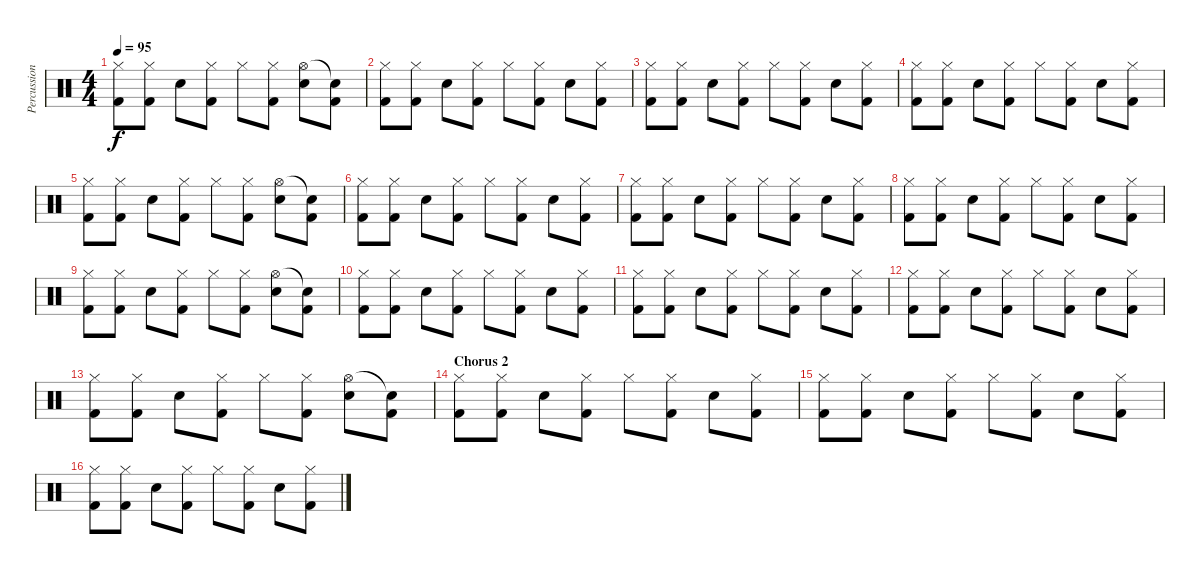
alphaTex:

\track ("Percussion" "Percussion") {instrument percussion}
\staff {score}
\articulation defaults
\ts (4 4)
\tempo 95
\clef neutral
\ks c
("Hi-Hat (closed)" "Kick (hit) 2").8{dy f} ("Hi-Hat (closed)" "Kick (hit) 2").8 "Snare (hit) 2".8 ("Hi-Hat (closed)" "Kick (hit) 2").8 "Hi-Hat (closed)".8 ("Hi-Hat (closed)" "Kick (hit) 2").8 ("Hi-Hat (open)" "Snare (hit) 2").8 ("Snare (hit)"{t} "Kick (hit) 2").8 |
("Hi-Hat (closed)" "Kick (hit) 2").8 ("Hi-Hat (closed)" "Kick (hit) 2").8 "Snare (hit) 2".8 ("Hi-Hat (closed)" "Kick (hit) 2").8 "Hi-Hat (closed)".8 ("Hi-Hat (closed)" "Kick (hit) 2").8 "Snare (hit) 2".8 ("Hi-Hat (closed)" "Kick (hit) 2").8 |
("Hi-Hat (closed)" "Kick (hit) 2").8 ("Hi-Hat (closed)" "Kick (hit) 2").8 "Snare (hit) 2".8 ("Hi-Hat (closed)" "Kick (hit) 2").8 "Hi-Hat (closed)".8 ("Hi-Hat (closed)" "Kick (hit) 2").8 "Snare (hit) 2".8 ("Hi-Hat (closed)" "Kick (hit) 2").8 |
("Hi-Hat (closed)" "Kick (hit) 2").8 ("Hi-Hat (closed)" "Kick (hit) 2").8 "Snare (hit) 2".8 ("Hi-Hat (closed)" "Kick (hit) 2").8 "Hi-Hat (closed)".8 ("Hi-Hat (closed)" "Kick (hit) 2").8 "Snare (hit) 2".8 ("Hi-Hat (closed)" "Kick (hit) 2").8 |
("Hi-Hat (closed)" "Kick (hit) 2").8 ("Hi-Hat (closed)" "Kick (hit) 2").8 "Snare (hit) 2".8 ("Hi-Hat (closed)" "Kick (hit) 2").8 "Hi-Hat (closed)".8 ("Hi-Hat (closed)" "Kick (hit) 2").8 ("Hi-Hat (open)" "Snare (hit) 2").8 ("Snare (hit)"{t} "Kick (hit) 2").8 |
("Hi-Hat (closed)" "Kick (hit) 2").8 ("Hi-Hat (closed)" "Kick (hit) 2").8 "Snare (hit) 2".8 ("Hi-Hat (closed)" "Kick (hit) 2").8 "Hi-Hat (closed)".8 ("Hi-Hat (closed)" "Kick (hit) 2").8 "Snare (hit) 2".8 ("Hi-Hat (closed)" "Kick (hit) 2").8 |
("Hi-Hat (closed)" "Kick (hit) 2").8 ("Hi-Hat (closed)" "Kick (hit) 2").8 "Snare (hit) 2".8 ("Hi-Hat (closed)" "Kick (hit) 2").8 "Hi-Hat (closed)".8 ("Hi-Hat (closed)" "Kick (hit) 2").8 "Snare (hit) 2".8 ("Hi-Hat (closed)" "Kick (hit) 2").8 |
("Hi-Hat (closed)" "Kick (hit) 2").8 ("Hi-Hat (closed)" "Kick (hit) 2").8 "Snare (hit) 2".8 ("Hi-Hat (closed)" "Kick (hit) 2").8 "Hi-Hat (closed)".8 ("Hi-Hat (closed)" "Kick (hit) 2").8 "Snare (hit) 2".8 ("Hi-Hat (closed)" "Kick (hit) 2").8 |
("Hi-Hat (closed)" "Kick (hit) 2").8 ("Hi-Hat (closed)" "Kick (hit) 2").8 "Snare (hit) 2".8 ("Hi-Hat (closed)" "Kick (hit) 2").8 "Hi-Hat (closed)".8 ("Hi-Hat (closed)" "Kick (hit) 2").8 ("Hi-Hat (open)" "Snare (hit) 2").8 ("Snare (hit)"{t} "Kick (hit) 2").8 |
("Hi-Hat (closed)" "Kick (hit) 2").8 ("Hi-Hat (closed)" "Kick (hit) 2").8 "Snare (hit) 2".8 ("Hi-Hat (closed)" "Kick (hit) 2").8 "Hi-Hat (closed)".8 ("Hi-Hat (closed)" "Kick (hit) 2").8 "Snare (hit) 2".8 ("Hi-Hat (closed)" "Kick (hit) 2").8 |
("Hi-Hat (closed)" "Kick (hit) 2").8 ("Hi-Hat (closed)" "Kick (hit) 2").8 "Snare (hit) 2".8 ("Hi-Hat (closed)" "Kick (hit) 2").8 "Hi-Hat (closed)".8 ("Hi-Hat (closed)" "Kick (hit) 2").8 "Snare (hit) 2".8 ("Hi-Hat (closed)" "Kick (hit) 2").8 |
("Hi-Hat (closed)" "Kick (hit) 2").8 ("Hi-Hat (closed)" "Kick (hit) 2").8 "Snare (hit) 2".8 ("Hi-Hat (closed)" "Kick (hit) 2").8 "Hi-Hat (closed)".8 ("Hi-Hat (closed)" "Kick (hit) 2").8 "Snare (hit) 2".8 ("Hi-Hat (closed)" "Kick (hit) 2").8 |
("Hi-Hat (closed)" "Kick (hit) 2").8 ("Hi-Hat (closed)" "Kick (hit) 2").8 "Snare (hit) 2".8 ("Hi-Hat (closed)" "Kick (hit) 2").8 "Hi-Hat (closed)".8 ("Hi-Hat (closed)" "Kick (hit) 2").8 ("Hi-Hat (open)" "Snare (hit) 2").8 ("Snare (hit)"{t} "Kick (hit) 2").8 |
\section ("" "Chorus 2")
("Hi-Hat (closed)" "Kick (hit) 2").8 ("Hi-Hat (closed)" "Kick (hit) 2").8 "Snare (hit) 2".8 ("Hi-Hat (closed)" "Kick (hit) 2").8 "Hi-Hat (closed)".8 ("Hi-Hat (closed)" "Kick (hit) 2").8 "Snare (hit) 2".8 ("Hi-Hat (closed)" "Kick (hit) 2").8 |
("Hi-Hat (closed)" "Kick (hit) 2").8 ("Hi-Hat (closed)" "Kick (hit) 2").8 "Snare (hit) 2".8 ("Hi-Hat (closed)" "Kick (hit) 2").8 "Hi-Hat (closed)".8 ("Hi-Hat (closed)" "Kick (hit) 2").8 "Snare (hit) 2".8 ("Hi-Hat (closed)" "Kick (hit) 2").8 |
("Hi-Hat (closed)" "Kick (hit) 2").8 ("Hi-Hat (closed)" "Kick (hit) 2").8 "Snare (hit) 2".8 ("Hi-Hat (closed)" "Kick (hit) 2").8 "Hi-Hat (closed)".8 ("Hi-Hat (closed)" "Kick (hit) 2").8 "Snare (hit) 2".8 ("Hi-Hat (closed)" "Kick (hit) 2").8
